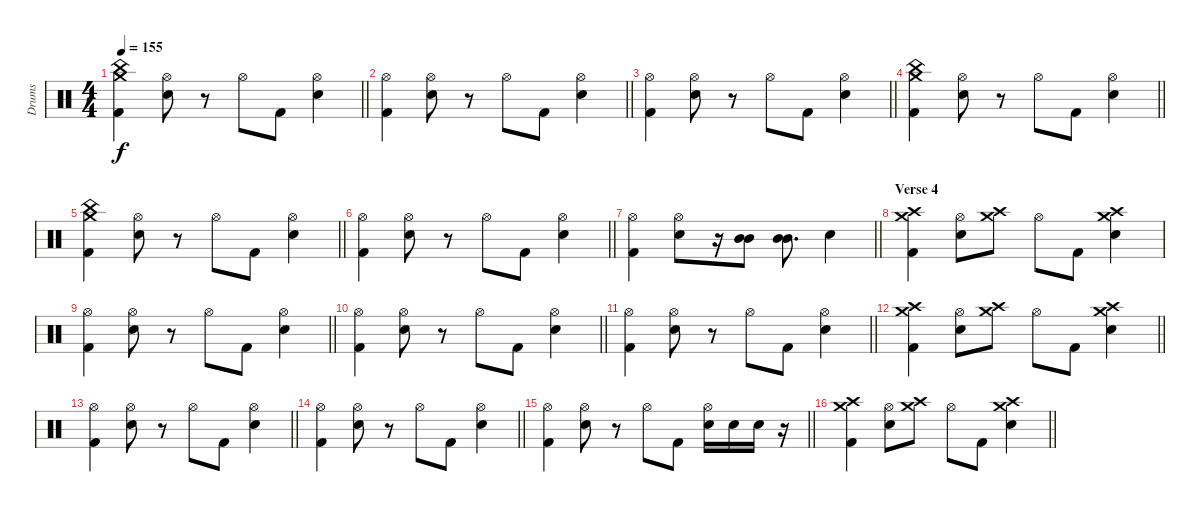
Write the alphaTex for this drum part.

\track ("Drums" "Drums") {instrument percussion}
\staff {score}
\articulation defaults
\ts (4 4)
\tempo 155
\clef neutral
\barLineRight lightlight
\ks c
("Crash medium (hit)" "China (hit)" "Kick (hit) 2").4{dy f} ("Hi-Hat (open)" "Electric Snare (hit)").8 r.8 "Hi-Hat (open)".8 "Kick (hit) 2".8 ("Hi-Hat (open)" "Electric Snare (hit)").4 |
\barLineRight lightlight
("Hi-Hat (open)" "Kick (hit) 2").4 ("Hi-Hat (open)" "Electric Snare (hit)").8 r.8 "Hi-Hat (open)".8 "Kick (hit) 2".8 ("Hi-Hat (open)" "Electric Snare (hit)").4 |
\barLineRight lightlight
("Hi-Hat (open)" "Kick (hit) 2").4 ("Hi-Hat (open)" "Electric Snare (hit)").8 r.8 "Hi-Hat (open)".8 "Kick (hit) 2".8 ("Hi-Hat (open)" "Electric Snare (hit)").4 |
\barLineRight lightlight
("Crash medium (hit)" "China (hit)" "Kick (hit) 2").4 ("Hi-Hat (open)" "Electric Snare (hit)").8 r.8 "Hi-Hat (open)".8 "Kick (hit) 2".8 ("Hi-Hat (open)" "Electric Snare (hit)").4 |
\barLineRight lightlight
("Crash medium (hit)" "China (hit)" "Kick (hit) 2").4 ("Hi-Hat (open)" "Electric Snare (hit)").8 r.8 "Hi-Hat (open)".8 "Kick (hit) 2".8 ("Hi-Hat (open)" "Electric Snare (hit)").4 |
\barLineRight lightlight
("Hi-Hat (open)" "Kick (hit) 2").4 ("Hi-Hat (open)" "Electric Snare (hit)").8 r.8 "Hi-Hat (open)".8 "Kick (hit) 2".8 ("Hi-Hat (open)" "Electric Snare (hit)").4 |
\barLineRight lightlight
("Hi-Hat (open)" "Kick (hit) 2").4 ("Hi-Hat (open)" "Electric Snare (hit)").8 r.16 ("Mid Tom (hit)" "Mid Tom (hit)").8 ("Mid Tom (hit)" "Mid Tom (hit)").8{d} "Electric Snare (hit)".4 |
\section ("" "Verse 4")
("Crash high (hit)" "Crash medium (hit)" "Kick (hit) 2").4 ("Hi-Hat (open)" "Electric Snare (hit)").8 ("Crash high (hit)" "Crash medium (hit)").8 "Hi-Hat (open)".8 "Kick (hit) 2".8 ("Crash high (hit)" "Crash medium (hit)" "Electric Snare (hit)").4 |
\barLineRight lightlight
("Hi-Hat (open)" "Kick (hit) 2").4 ("Hi-Hat (open)" "Electric Snare (hit)").8 r.8 "Hi-Hat (open)".8 "Kick (hit) 2".8 ("Hi-Hat (open)" "Electric Snare (hit)").4 |
\barLineRight lightlight
("Hi-Hat (open)" "Kick (hit) 2").4 ("Hi-Hat (open)" "Electric Snare (hit)").8 r.8 "Hi-Hat (open)".8 "Kick (hit) 2".8 ("Hi-Hat (open)" "Electric Snare (hit)").4 |
\barLineRight lightlight
("Hi-Hat (open)" "Kick (hit) 2").4 ("Hi-Hat (open)" "Electric Snare (hit)").8 r.8 "Hi-Hat (open)".8 "Kick (hit) 2".8 ("Hi-Hat (open)" "Electric Snare (hit)").4 |
\barLineRight lightlight
("Crash high (hit)" "Crash medium (hit)" "Kick (hit) 2").4 ("Hi-Hat (open)" "Electric Snare (hit)").8 ("Crash high (hit)" "Crash medium (hit)").8 "Hi-Hat (open)".8 "Kick (hit) 2".8 ("Crash high (hit)" "Crash medium (hit)" "Electric Snare (hit)").4 |
\barLineRight lightlight
("Hi-Hat (open)" "Kick (hit) 2").4 ("Hi-Hat (open)" "Electric Snare (hit)").8 r.8 "Hi-Hat (open)".8 "Kick (hit) 2".8 ("Hi-Hat (open)" "Electric Snare (hit)").4 |
\barLineRight lightlight
("Hi-Hat (open)" "Kick (hit) 2").4 ("Hi-Hat (open)" "Electric Snare (hit)").8 r.8 "Hi-Hat (open)".8 "Kick (hit) 2".8 ("Hi-Hat (open)" "Electric Snare (hit)").4 |
\barLineRight lightlight
("Hi-Hat (open)" "Kick (hit) 2").4 ("Hi-Hat (open)" "Electric Snare (hit)").8 r.8 "Hi-Hat (open)".8 "Kick (hit) 2".8 ("Hi-Hat (open)" "Electric Snare (hit)").16 "Electric Snare (hit)".16 "Electric Snare (hit)".16 r.16 |
\barLineRight lightlight
("Crash high (hit)" "Crash medium (hit)" "Kick (hit) 2").4 ("Hi-Hat (open)" "Electric Snare (hit)").8 ("Crash high (hit)" "Crash medium (hit)").8 "Hi-Hat (open)".8 "Kick (hit) 2".8 ("Crash high (hit)" "Crash medium (hit)" "Electric Snare (hit)").4
